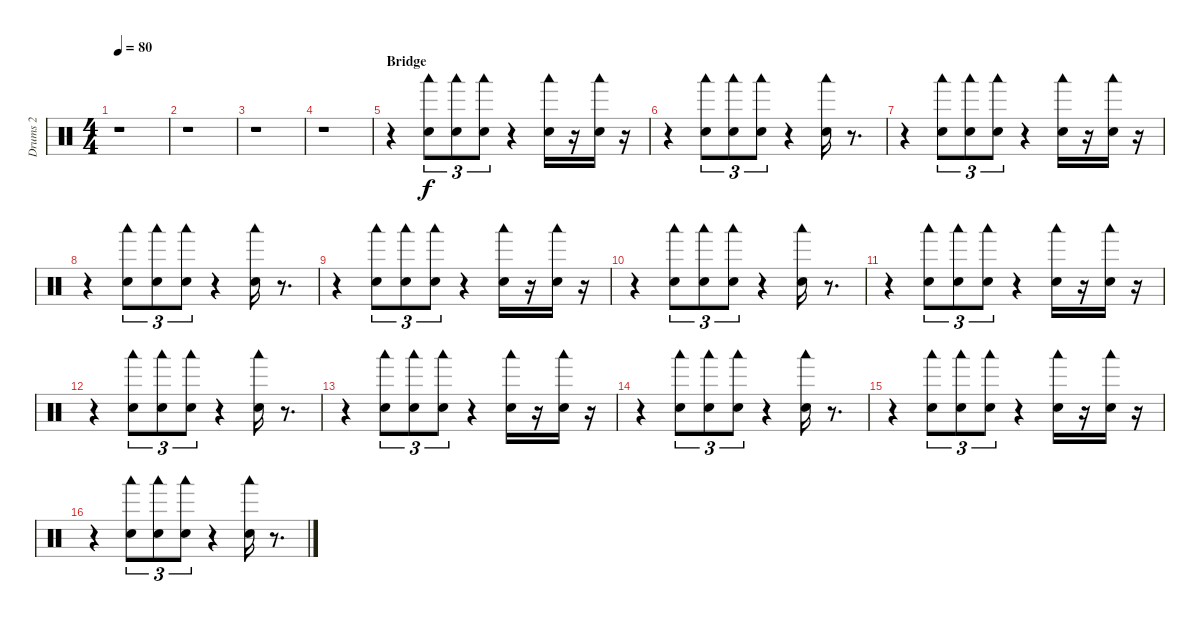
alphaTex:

\track ("Drums 2" "Drums 2") {instrument percussion}
\staff {score}
\articulation defaults
\ts (4 4)
\tempo 80
\clef neutral
\ks c
r.1{dy fff} |
r.1 |
r.1 |
r.1 |
\section ("" "Bridge")
r.4 ("Woodblock low (hit)" "Electric Snare (hit)").8{tu (3 2) dy f} ("Woodblock low (hit)" "Electric Snare (hit)").8{tu (3 2)} ("Woodblock low (hit)" "Electric Snare (hit)").8{tu (3 2)} r.4 ("Woodblock low (hit)" "Electric Snare (hit)").16 r.16 ("Woodblock low (hit)" "Electric Snare (hit)").16 r.16 |
r.4 ("Woodblock low (hit)" "Electric Snare (hit)").8{tu (3 2)} ("Woodblock low (hit)" "Electric Snare (hit)").8{tu (3 2)} ("Woodblock low (hit)" "Electric Snare (hit)").8{tu (3 2)} r.4 ("Woodblock low (hit)" "Electric Snare (hit)").16 r.8{d} |
r.4 ("Woodblock low (hit)" "Electric Snare (hit)").8{tu (3 2)} ("Woodblock low (hit)" "Electric Snare (hit)").8{tu (3 2)} ("Woodblock low (hit)" "Electric Snare (hit)").8{tu (3 2)} r.4 ("Woodblock low (hit)" "Electric Snare (hit)").16 r.16 ("Woodblock low (hit)" "Electric Snare (hit)").16 r.16 |
r.4 ("Woodblock low (hit)" "Electric Snare (hit)").8{tu (3 2)} ("Woodblock low (hit)" "Electric Snare (hit)").8{tu (3 2)} ("Woodblock low (hit)" "Electric Snare (hit)").8{tu (3 2)} r.4 ("Woodblock low (hit)" "Electric Snare (hit)").16 r.8{d} |
r.4 ("Woodblock low (hit)" "Electric Snare (hit)").8{tu (3 2)} ("Woodblock low (hit)" "Electric Snare (hit)").8{tu (3 2)} ("Woodblock low (hit)" "Electric Snare (hit)").8{tu (3 2)} r.4 ("Woodblock low (hit)" "Electric Snare (hit)").16 r.16 ("Woodblock low (hit)" "Electric Snare (hit)").16 r.16 |
r.4 ("Woodblock low (hit)" "Electric Snare (hit)").8{tu (3 2)} ("Woodblock low (hit)" "Electric Snare (hit)").8{tu (3 2)} ("Woodblock low (hit)" "Electric Snare (hit)").8{tu (3 2)} r.4 ("Woodblock low (hit)" "Electric Snare (hit)").16 r.8{d} |
r.4 ("Woodblock low (hit)" "Electric Snare (hit)").8{tu (3 2)} ("Woodblock low (hit)" "Electric Snare (hit)").8{tu (3 2)} ("Woodblock low (hit)" "Electric Snare (hit)").8{tu (3 2)} r.4 ("Woodblock low (hit)" "Electric Snare (hit)").16 r.16 ("Woodblock low (hit)" "Electric Snare (hit)").16 r.16 |
r.4 ("Woodblock low (hit)" "Electric Snare (hit)").8{tu (3 2)} ("Woodblock low (hit)" "Electric Snare (hit)").8{tu (3 2)} ("Woodblock low (hit)" "Electric Snare (hit)").8{tu (3 2)} r.4 ("Woodblock low (hit)" "Electric Snare (hit)").16 r.8{d} |
r.4 ("Woodblock low (hit)" "Electric Snare (hit)").8{tu (3 2)} ("Woodblock low (hit)" "Electric Snare (hit)").8{tu (3 2)} ("Woodblock low (hit)" "Electric Snare (hit)").8{tu (3 2)} r.4 ("Woodblock low (hit)" "Electric Snare (hit)").16 r.16 ("Woodblock low (hit)" "Electric Snare (hit)").16 r.16 |
r.4 ("Woodblock low (hit)" "Electric Snare (hit)").8{tu (3 2)} ("Woodblock low (hit)" "Electric Snare (hit)").8{tu (3 2)} ("Woodblock low (hit)" "Electric Snare (hit)").8{tu (3 2)} r.4 ("Woodblock low (hit)" "Electric Snare (hit)").16 r.8{d} |
r.4 ("Woodblock low (hit)" "Electric Snare (hit)").8{tu (3 2)} ("Woodblock low (hit)" "Electric Snare (hit)").8{tu (3 2)} ("Woodblock low (hit)" "Electric Snare (hit)").8{tu (3 2)} r.4 ("Woodblock low (hit)" "Electric Snare (hit)").16 r.16 ("Woodblock low (hit)" "Electric Snare (hit)").16 r.16 |
r.4 ("Woodblock low (hit)" "Electric Snare (hit)").8{tu (3 2)} ("Woodblock low (hit)" "Electric Snare (hit)").8{tu (3 2)} ("Woodblock low (hit)" "Electric Snare (hit)").8{tu (3 2)} r.4 ("Woodblock low (hit)" "Electric Snare (hit)").16 r.8{d}
